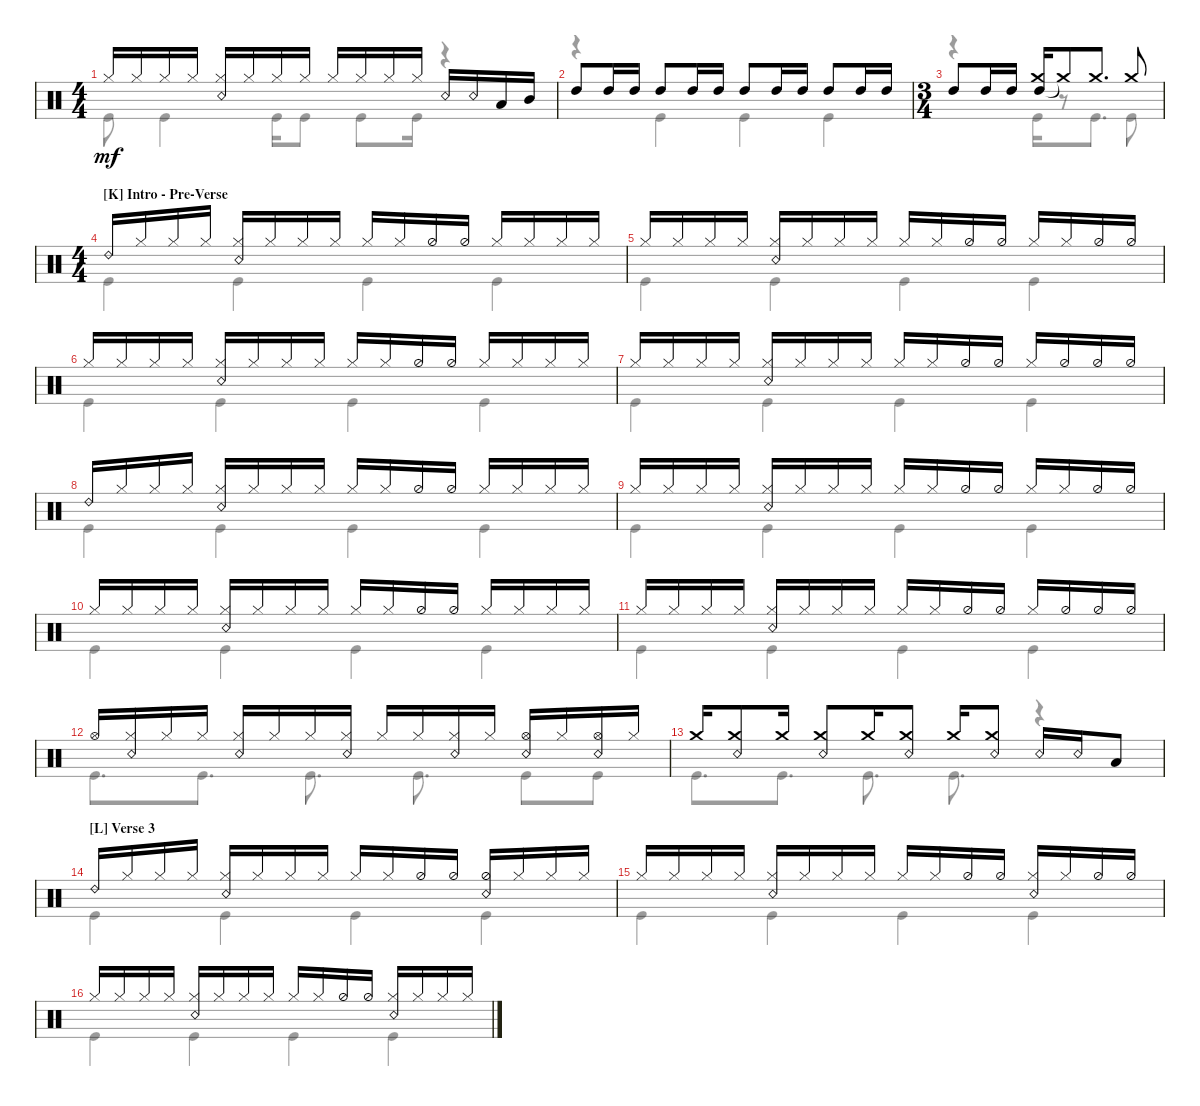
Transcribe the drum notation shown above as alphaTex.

\defaultSystemsLayout 4
\bracketExtendMode groupsimilarinstruments
\singleTrackTrackNamePolicy hidden
\multiTrackTrackNamePolicy hidden
\firstSystemTrackNameOrientation horizontal
\otherSystemsTrackNameOrientation horizontal
\track ("Максим Удалов" "Drums") {instrument percussion}
\staff {score}
\articulation defaults
\voice
\ts (4 4)
\tempo (100 hide)
\clef neutral
\scale
1.02648
\ks c "Hi-Hat (closed)".16{dy mf} "Hi-Hat (closed)".16 "Hi-Hat (closed)".16 "Hi-Hat (closed)".16
("Hi-Hat (closed)" "Snare (rim shot)").16 "Hi-Hat (closed)".16 "Hi-Hat (closed)".16 "Hi-Hat (closed)".16 "Hi-Hat (closed)".16 "Hi-Hat (closed)".16 "Hi-Hat (closed)".16 "Hi-Hat (closed)".16 "Snare (rim shot)".16 "Snare (rim shot)".16 "Low Tom (hit)".16 "Mid Tom (hit)".16 |
\scale
0.973518 "High Tom (hit)".8 "High Tom (hit)".16 "High Tom (hit)".16 "High Tom (hit)".8 "High Tom (hit)".16 "High Tom (hit)".16 "High Tom (hit)".8 "High Tom (hit)".16 "High Tom (hit)".16 "High Tom (hit)".8 "High Tom (hit)".16 "High Tom (hit)".16 |
\ts (3 4)
\scale
1.05675 "High Tom (hit)".8 "High Tom (hit)".16 "High Tom (hit)".16 ("High Tom (hit)" "Crash medium (hit)").16 "Crash medium (hit)"{t}.8 "Crash medium (hit)".8{d} "Crash medium (hit)".8 |
\ts (4 4)
\section ("K" "Intro - Pre-Verse")
\tempo (110 hide)
\scale
0.943253 "Ride (bell) 2".16 "Hi-Hat (closed)".16 "Hi-Hat (closed)".16 "Hi-Hat (closed)".16 ("Hi-Hat (closed)" "Snare (rim shot)").16 "Hi-Hat (closed)".16 "Hi-Hat (closed)".16 "Hi-Hat (closed)".16 "Hi-Hat (closed)".16 "Hi-Hat (closed)".16 "Hi-Hat (half)".16 "Hi-Hat (half)".16 "Hi-Hat (closed)".16 "Hi-Hat (closed)".16 "Hi-Hat (closed)".16 "Hi-Hat (closed)".16 |
\scale
1.02648 "Hi-Hat (closed)".16 "Hi-Hat (closed)".16 "Hi-Hat (closed)".16 "Hi-Hat (closed)".16 ("Hi-Hat (closed)" "Snare (rim shot)").16 "Hi-Hat (closed)".16 "Hi-Hat (closed)".16 "Hi-Hat (closed)".16 "Hi-Hat (closed)".16 "Hi-Hat (closed)".16 "Hi-Hat (half)".16 "Hi-Hat (half)".16 "Hi-Hat (closed)".16 "Hi-Hat (closed)".16 "Hi-Hat (half)".16 "Hi-Hat (half)".16 |
\scale
0.973518 "Hi-Hat (closed)".16 "Hi-Hat (closed)".16 "Hi-Hat (closed)".16 "Hi-Hat (closed)".16 ("Hi-Hat (closed)" "Snare (rim shot)").16 "Hi-Hat (closed)".16 "Hi-Hat (closed)".16 "Hi-Hat (closed)".16 "Hi-Hat (closed)".16 "Hi-Hat (closed)".16 "Hi-Hat (half)".16 "Hi-Hat (half)".16 "Hi-Hat (closed)".16 "Hi-Hat (closed)".16 "Hi-Hat (closed)".16 "Hi-Hat (closed)".16 |
\scale
1.02648 "Hi-Hat (closed)".16 "Hi-Hat (closed)".16 "Hi-Hat (closed)".16 "Hi-Hat (closed)".16 ("Hi-Hat (closed)" "Snare (rim shot)").16 "Hi-Hat (closed)".16 "Hi-Hat (closed)".16 "Hi-Hat (closed)".16 "Hi-Hat (closed)".16 "Hi-Hat (closed)".16 "Hi-Hat (half)".16 "Hi-Hat (half)".16 "Hi-Hat (closed)".16 "Hi-Hat (half)".16 "Hi-Hat (half)".16 "Hi-Hat (half)".16 |
\scale
0.973518 "Ride (bell) 2".16 "Hi-Hat (closed)".16 "Hi-Hat (closed)".16 "Hi-Hat (closed)".16 ("Hi-Hat (closed)" "Snare (rim shot)").16 "Hi-Hat (closed)".16 "Hi-Hat (closed)".16 "Hi-Hat (closed)".16 "Hi-Hat (closed)".16 "Hi-Hat (closed)".16 "Hi-Hat (half)".16 "Hi-Hat (half)".16 "Hi-Hat (closed)".16 "Hi-Hat (closed)".16 "Hi-Hat (closed)".16 "Hi-Hat (closed)".16 |
\scale
1.02648 "Hi-Hat (closed)".16 "Hi-Hat (closed)".16 "Hi-Hat (closed)".16 "Hi-Hat (closed)".16 ("Hi-Hat (closed)" "Snare (rim shot)").16 "Hi-Hat (closed)".16 "Hi-Hat (closed)".16 "Hi-Hat (closed)".16 "Hi-Hat (closed)".16 "Hi-Hat (closed)".16 "Hi-Hat (half)".16 "Hi-Hat (half)".16 "Hi-Hat (closed)".16 "Hi-Hat (closed)".16 "Hi-Hat (half)".16 "Hi-Hat (half)".16 |
\scale
0.973518 "Hi-Hat (closed)".16 "Hi-Hat (closed)".16 "Hi-Hat (closed)".16 "Hi-Hat (closed)".16 ("Hi-Hat (closed)" "Snare (rim shot)").16 "Hi-Hat (closed)".16 "Hi-Hat (closed)".16 "Hi-Hat (closed)".16 "Hi-Hat (closed)".16 "Hi-Hat (closed)".16 "Hi-Hat (half)".16 "Hi-Hat (half)".16 "Hi-Hat (closed)".16 "Hi-Hat (closed)".16 "Hi-Hat (closed)".16 "Hi-Hat (closed)".16 |
\scale
1.02648 "Hi-Hat (closed)".16 "Hi-Hat (closed)".16 "Hi-Hat (closed)".16 "Hi-Hat (closed)".16 ("Hi-Hat (closed)" "Snare (rim shot)").16 "Hi-Hat (closed)".16 "Hi-Hat (closed)".16 "Hi-Hat (closed)".16 "Hi-Hat (closed)".16 "Hi-Hat (closed)".16 "Hi-Hat (half)".16 "Hi-Hat (half)".16 "Hi-Hat (closed)".16 "Hi-Hat (half)".16 "Hi-Hat (half)".16 "Hi-Hat (half)".16 |
\scale
0.973518 "Hi-Hat (open)".16 ("Hi-Hat (closed)" "Snare (rim shot)").16 "Hi-Hat (closed)".16 "Hi-Hat (closed)".16 ("Hi-Hat (closed)" "Snare (rim shot)").16 "Hi-Hat (closed)".16 "Hi-Hat (closed)".16 ("Hi-Hat (closed)" "Snare (rim shot)").16 "Hi-Hat (closed)".16 "Hi-Hat (closed)".16 ("Hi-Hat (closed)" "Snare (rim shot)").16 "Hi-Hat (closed)".16 ("Hi-Hat (open)" "Snare (rim shot)").16 "Hi-Hat (closed)".16 ("Hi-Hat (open)" "Snare (rim shot)").16 "Hi-Hat (closed)".16 |
\scale
1.02648 "Crash medium (hit)".16 ("Crash medium (hit)" "Snare (rim shot)").8 "Crash medium (hit)".16 ("Crash medium (hit)" "Snare (rim shot)").8 "Crash medium (hit)".16 ("Crash medium (hit)" "Snare (rim shot)").8 "Crash medium (hit)".16 ("Crash medium (hit)" "Snare (rim shot)").8 "Snare (rim shot)".16 "Snare (rim shot)".16 "Low Tom (hit)".8 |
\section ("L" "Verse 3")
\scale
0.973518 "Ride (bell) 2".16 "Hi-Hat (closed)".16 "Hi-Hat (closed)".16 "Hi-Hat (closed)".16 ("Hi-Hat (closed)" "Snare (rim shot)").16 "Hi-Hat (closed)".16 "Hi-Hat (closed)".16 "Hi-Hat (closed)".16 "Hi-Hat (closed)".16 "Hi-Hat (closed)".16 "Hi-Hat (half)".16 "Hi-Hat (half)".16 ("Hi-Hat (half)" "Snare (rim shot)").16 "Hi-Hat (closed)".16 "Hi-Hat (closed)".16 "Hi-Hat (closed)".16 |
\scale
1.02648 "Hi-Hat (closed)".16 "Hi-Hat (closed)".16 "Hi-Hat (closed)".16 "Hi-Hat (closed)".16 ("Hi-Hat (closed)" "Snare (rim shot)").16 "Hi-Hat (closed)".16 "Hi-Hat (closed)".16 "Hi-Hat (closed)".16 "Hi-Hat (closed)".16 "Hi-Hat (closed)".16 "Hi-Hat (half)".16 "Hi-Hat (half)".16 ("Snare (rim shot)" "Hi-Hat (closed)").16 "Hi-Hat (closed)".16 "Hi-Hat (half)".16 "Hi-Hat (half)".16 |
\scale
0.973518 "Hi-Hat (closed)".16 "Hi-Hat (closed)".16 "Hi-Hat (closed)".16 "Hi-Hat (closed)".16 ("Hi-Hat (closed)" "Snare (rim shot)").16 "Hi-Hat (closed)".16 "Hi-Hat (closed)".16 "Hi-Hat (closed)".16 "Hi-Hat (closed)".16 "Hi-Hat (closed)".16 "Hi-Hat (half)".16 "Hi-Hat (half)".16 ("Snare (rim shot)" "Hi-Hat (closed)").16 "Hi-Hat (closed)".16 "Hi-Hat (closed)".16 "Hi-Hat (closed)".16
\voice
\clef neutral
\ottava regular
\simile none
\scale
1.02648
\ks c "Kick (hit)".8{dy mf} "Kick (hit)".4 "Kick (hit)".16 "Kick (hit)".8 "Kick (hit)".8 "Kick (hit)".16
r.4 |
\scale
0.973518 r.4 "Kick (hit)".4 "Kick (hit)".4 "Kick (hit)".4 |
\scale
1.05675 r.4 "Kick (hit)".16 r.8 "Kick (hit)".8{d} "Kick (hit)".8 |
\scale
0.943253 "Kick (hit)".4 "Kick (hit)".4 "Kick (hit)".4 "Kick (hit)".4 |
\scale
1.02648 "Kick (hit)".4 "Kick (hit)".4 "Kick (hit)".4 "Kick (hit)".4 |
\scale
0.973518 "Kick (hit)".4 "Kick (hit)".4 "Kick (hit)".4 "Kick (hit)".4 |
\scale
1.02648 "Kick (hit)".4 "Kick (hit)".4 "Kick (hit)".4 "Kick (hit)".4 |
\scale
0.973518 "Kick (hit)".4 "Kick (hit)".4 "Kick (hit)".4 "Kick (hit)".4 |
\scale
1.02648 "Kick (hit)".4 "Kick (hit)".4 "Kick (hit)".4 "Kick (hit)".4 |
\scale
0.973518 "Kick (hit)".4 "Kick (hit)".4 "Kick (hit)".4 "Kick (hit)".4 |
\scale
1.02648 "Kick (hit)".4 "Kick (hit)".4 "Kick (hit)".4 "Kick (hit)".4 |
\scale
0.973518 "Kick (hit)".8{d} "Kick (hit)".8{d} "Kick (hit)".8{d} "Kick (hit)".8{d} "Kick (hit)".8 "Kick (hit)".8 |
\scale
1.02648 "Kick (hit)".8{d} "Kick (hit)".8{d} "Kick (hit)".8{d} "Kick (hit)".8{d} r.4 |
\scale
0.973518 "Kick (hit)".4 "Kick (hit)".4 "Kick (hit)".4 "Kick (hit)".4 |
\scale
1.02648 "Kick (hit)".4 "Kick (hit)".4 "Kick (hit)".4 "Kick (hit)".4 |
\scale
0.973518 "Kick (hit)".4 "Kick (hit)".4 "Kick (hit)".4 "Kick (hit)".4
